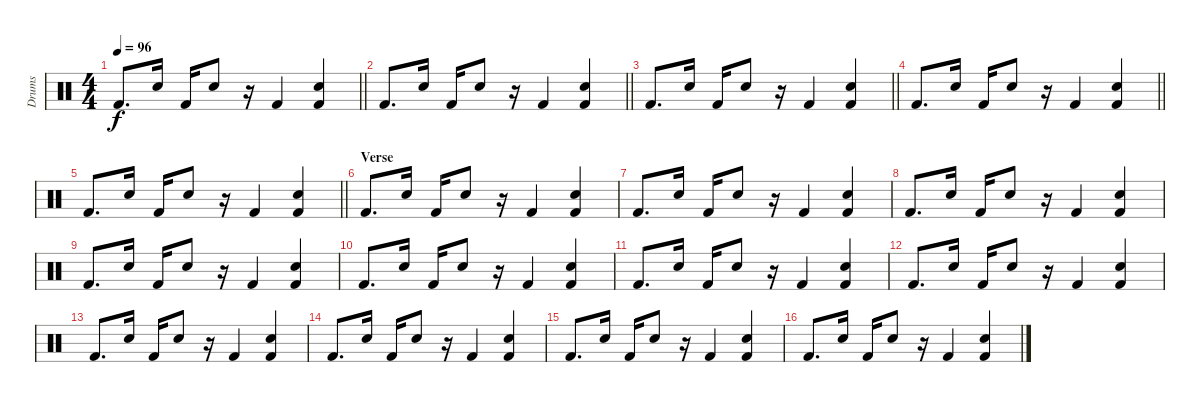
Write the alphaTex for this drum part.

\track ("Drums" "Drums") {instrument percussion}
\staff {score}
\articulation defaults
\ts (4 4)
\tempo 96
\clef neutral
\barLineRight lightlight
\ks c "Kick (hit) 2".8{d dy f} "Snare (hit) 2".16 "Kick (hit) 2".16 "Snare (hit) 2".8
r.16 "Kick (hit) 2".4 ("Snare (hit) 2" "Kick (hit) 2").4 |
\barLineRight lightlight "Kick (hit) 2".8{d} "Snare (hit) 2".16 "Kick (hit) 2".16 "Snare (hit) 2".8
r.16 "Kick (hit) 2".4 ("Snare (hit) 2" "Kick (hit) 2").4 |
\barLineRight lightlight "Kick (hit) 2".8{d} "Snare (hit) 2".16 "Kick (hit) 2".16 "Snare (hit) 2".8
r.16 "Kick (hit) 2".4 ("Snare (hit) 2" "Kick (hit) 2").4 |
\barLineRight lightlight "Kick (hit) 2".8{d} "Snare (hit) 2".16 "Kick (hit) 2".16 "Snare (hit) 2".8
r.16 "Kick (hit) 2".4 ("Snare (hit) 2" "Kick (hit) 2").4 |
\barLineRight lightlight "Kick (hit) 2".8{d} "Snare (hit) 2".16 "Kick (hit) 2".16 "Snare (hit) 2".8
r.16 "Kick (hit) 2".4 ("Snare (hit) 2" "Kick (hit) 2").4 |
\section ("" "Verse")
"Kick (hit) 2".8{d} "Snare (hit) 2".16 "Kick (hit) 2".16 "Snare (hit) 2".8 r.16 "Kick (hit) 2".4 ("Snare (hit) 2" "Kick (hit) 2").4 |
"Kick (hit) 2".8{d} "Snare (hit) 2".16 "Kick (hit) 2".16 "Snare (hit) 2".8 r.16 "Kick (hit) 2".4 ("Snare (hit) 2" "Kick (hit) 2").4 |
"Kick (hit) 2".8{d} "Snare (hit) 2".16 "Kick (hit) 2".16 "Snare (hit) 2".8 r.16 "Kick (hit) 2".4 ("Snare (hit) 2" "Kick (hit) 2").4 |
"Kick (hit) 2".8{d} "Snare (hit) 2".16 "Kick (hit) 2".16 "Snare (hit) 2".8 r.16 "Kick (hit) 2".4 ("Snare (hit) 2" "Kick (hit) 2").4 |
"Kick (hit) 2".8{d} "Snare (hit) 2".16 "Kick (hit) 2".16 "Snare (hit) 2".8 r.16 "Kick (hit) 2".4 ("Snare (hit) 2" "Kick (hit) 2").4 |
"Kick (hit) 2".8{d} "Snare (hit) 2".16 "Kick (hit) 2".16 "Snare (hit) 2".8 r.16 "Kick (hit) 2".4 ("Snare (hit) 2" "Kick (hit) 2").4 |
"Kick (hit) 2".8{d} "Snare (hit) 2".16 "Kick (hit) 2".16 "Snare (hit) 2".8 r.16 "Kick (hit) 2".4 ("Snare (hit) 2" "Kick (hit) 2").4 |
"Kick (hit) 2".8{d} "Snare (hit) 2".16 "Kick (hit) 2".16 "Snare (hit) 2".8 r.16 "Kick (hit) 2".4 ("Snare (hit) 2" "Kick (hit) 2").4 |
"Kick (hit) 2".8{d} "Snare (hit) 2".16 "Kick (hit) 2".16 "Snare (hit) 2".8 r.16 "Kick (hit) 2".4 ("Snare (hit) 2" "Kick (hit) 2").4 |
"Kick (hit) 2".8{d} "Snare (hit) 2".16 "Kick (hit) 2".16 "Snare (hit) 2".8 r.16 "Kick (hit) 2".4 ("Snare (hit) 2" "Kick (hit) 2").4 |
"Kick (hit) 2".8{d} "Snare (hit) 2".16 "Kick (hit) 2".16 "Snare (hit) 2".8 r.16 "Kick (hit) 2".4 ("Snare (hit) 2" "Kick (hit) 2").4
